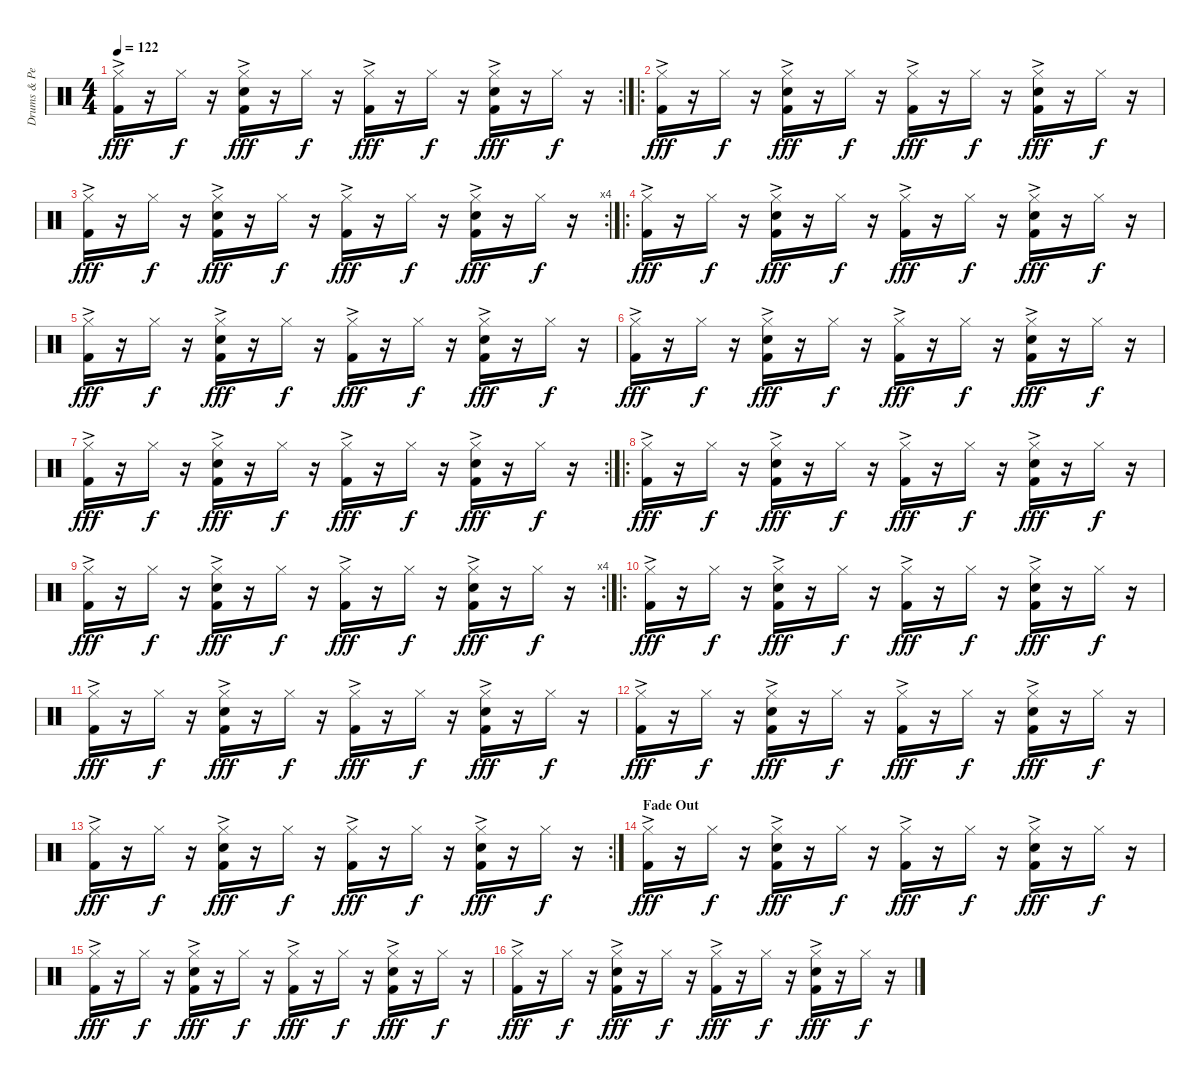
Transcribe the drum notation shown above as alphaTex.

\track ("Drums & Percussion" "Drums & Pe") {instrument percussion}
\staff {score}
\articulation defaults
\rc 2
\ts (4 4)
\tempo 122
\clef neutral
\ks c
("Hi-Hat (closed)"{ac} "Kick (hit) 2").16{dy fff} r.16 "Hi-Hat (closed)".16{dy f} r.16 ("Hi-Hat (closed)"{ac} "Electric Snare (hit)" "Kick (hit) 2").16{dy fff} r.16 "Hi-Hat (closed)".16{dy f} r.16 ("Hi-Hat (closed)"{ac} "Kick (hit) 2").16{dy fff} r.16 "Hi-Hat (closed)".16{dy f} r.16 ("Hi-Hat (closed)"{ac} "Electric Snare (hit)" "Kick (hit) 2").16{dy fff} r.16 "Hi-Hat (closed)".16{dy f} r.16 |
\ro
("Hi-Hat (closed)"{ac} "Kick (hit) 2").16{dy fff} r.16 "Hi-Hat (closed)".16{dy f} r.16 ("Hi-Hat (closed)"{ac} "Electric Snare (hit)" "Kick (hit) 2").16{dy fff} r.16 "Hi-Hat (closed)".16{dy f} r.16 ("Hi-Hat (closed)"{ac} "Kick (hit) 2").16{dy fff} r.16 "Hi-Hat (closed)".16{dy f} r.16 ("Hi-Hat (closed)"{ac} "Electric Snare (hit)" "Kick (hit) 2").16{dy fff} r.16 "Hi-Hat (closed)".16{dy f} r.16 |
\rc 4
("Hi-Hat (closed)"{ac} "Kick (hit) 2").16{dy fff} r.16 "Hi-Hat (closed)".16{dy f} r.16 ("Hi-Hat (closed)"{ac} "Electric Snare (hit)" "Kick (hit) 2").16{dy fff} r.16 "Hi-Hat (closed)".16{dy f} r.16 ("Hi-Hat (closed)"{ac} "Kick (hit) 2").16{dy fff} r.16 "Hi-Hat (closed)".16{dy f} r.16 ("Hi-Hat (closed)"{ac} "Electric Snare (hit)" "Kick (hit) 2").16{dy fff} r.16 "Hi-Hat (closed)".16{dy f} r.16 |
\ro
("Hi-Hat (closed)"{ac} "Kick (hit) 2").16{dy fff} r.16 "Hi-Hat (closed)".16{dy f} r.16 ("Hi-Hat (closed)"{ac} "Electric Snare (hit)" "Kick (hit) 2").16{dy fff} r.16 "Hi-Hat (closed)".16{dy f} r.16 ("Hi-Hat (closed)"{ac} "Kick (hit) 2").16{dy fff} r.16 "Hi-Hat (closed)".16{dy f} r.16 ("Hi-Hat (closed)"{ac} "Electric Snare (hit)" "Kick (hit) 2").16{dy fff} r.16 "Hi-Hat (closed)".16{dy f} r.16 |
("Hi-Hat (closed)"{ac} "Kick (hit) 2").16{dy fff} r.16 "Hi-Hat (closed)".16{dy f} r.16 ("Hi-Hat (closed)"{ac} "Electric Snare (hit)" "Kick (hit) 2").16{dy fff} r.16 "Hi-Hat (closed)".16{dy f} r.16 ("Hi-Hat (closed)"{ac} "Kick (hit) 2").16{dy fff} r.16 "Hi-Hat (closed)".16{dy f} r.16 ("Hi-Hat (closed)"{ac} "Electric Snare (hit)" "Kick (hit) 2").16{dy fff} r.16 "Hi-Hat (closed)".16{dy f} r.16 |
("Hi-Hat (closed)"{ac} "Kick (hit) 2").16{dy fff} r.16 "Hi-Hat (closed)".16{dy f} r.16 ("Hi-Hat (closed)"{ac} "Electric Snare (hit)" "Kick (hit) 2").16{dy fff} r.16 "Hi-Hat (closed)".16{dy f} r.16 ("Hi-Hat (closed)"{ac} "Kick (hit) 2").16{dy fff} r.16 "Hi-Hat (closed)".16{dy f} r.16 ("Hi-Hat (closed)"{ac} "Electric Snare (hit)" "Kick (hit) 2").16{dy fff} r.16 "Hi-Hat (closed)".16{dy f} r.16 |
\rc 2
("Hi-Hat (closed)"{ac} "Kick (hit) 2").16{dy fff} r.16 "Hi-Hat (closed)".16{dy f} r.16 ("Hi-Hat (closed)"{ac} "Electric Snare (hit)" "Kick (hit) 2").16{dy fff} r.16 "Hi-Hat (closed)".16{dy f} r.16 ("Hi-Hat (closed)"{ac} "Kick (hit) 2").16{dy fff} r.16 "Hi-Hat (closed)".16{dy f} r.16 ("Hi-Hat (closed)"{ac} "Electric Snare (hit)" "Kick (hit) 2").16{dy fff} r.16 "Hi-Hat (closed)".16{dy f} r.16 |
\ro
("Hi-Hat (closed)"{ac} "Kick (hit) 2").16{dy fff} r.16 "Hi-Hat (closed)".16{dy f} r.16 ("Hi-Hat (closed)"{ac} "Electric Snare (hit)" "Kick (hit) 2").16{dy fff} r.16 "Hi-Hat (closed)".16{dy f} r.16 ("Hi-Hat (closed)"{ac} "Kick (hit) 2").16{dy fff} r.16 "Hi-Hat (closed)".16{dy f} r.16 ("Hi-Hat (closed)"{ac} "Electric Snare (hit)" "Kick (hit) 2").16{dy fff} r.16 "Hi-Hat (closed)".16{dy f} r.16 |
\rc 4
("Hi-Hat (closed)"{ac} "Kick (hit) 2").16{dy fff} r.16 "Hi-Hat (closed)".16{dy f} r.16 ("Hi-Hat (closed)"{ac} "Electric Snare (hit)" "Kick (hit) 2").16{dy fff} r.16 "Hi-Hat (closed)".16{dy f} r.16 ("Hi-Hat (closed)"{ac} "Kick (hit) 2").16{dy fff} r.16 "Hi-Hat (closed)".16{dy f} r.16 ("Hi-Hat (closed)"{ac} "Electric Snare (hit)" "Kick (hit) 2").16{dy fff} r.16 "Hi-Hat (closed)".16{dy f} r.16 |
\ro
("Hi-Hat (closed)"{ac} "Kick (hit) 2").16{dy fff} r.16 "Hi-Hat (closed)".16{dy f} r.16 ("Hi-Hat (closed)"{ac} "Electric Snare (hit)" "Kick (hit) 2").16{dy fff} r.16 "Hi-Hat (closed)".16{dy f} r.16 ("Hi-Hat (closed)"{ac} "Kick (hit) 2").16{dy fff} r.16 "Hi-Hat (closed)".16{dy f} r.16 ("Hi-Hat (closed)"{ac} "Electric Snare (hit)" "Kick (hit) 2").16{dy fff} r.16 "Hi-Hat (closed)".16{dy f} r.16 |
("Hi-Hat (closed)"{ac} "Kick (hit) 2").16{dy fff} r.16 "Hi-Hat (closed)".16{dy f} r.16 ("Hi-Hat (closed)"{ac} "Electric Snare (hit)" "Kick (hit) 2").16{dy fff} r.16 "Hi-Hat (closed)".16{dy f} r.16 ("Hi-Hat (closed)"{ac} "Kick (hit) 2").16{dy fff} r.16 "Hi-Hat (closed)".16{dy f} r.16 ("Hi-Hat (closed)"{ac} "Electric Snare (hit)" "Kick (hit) 2").16{dy fff} r.16 "Hi-Hat (closed)".16{dy f} r.16 |
("Hi-Hat (closed)"{ac} "Kick (hit) 2").16{dy fff} r.16 "Hi-Hat (closed)".16{dy f} r.16 ("Hi-Hat (closed)"{ac} "Electric Snare (hit)" "Kick (hit) 2").16{dy fff} r.16 "Hi-Hat (closed)".16{dy f} r.16 ("Hi-Hat (closed)"{ac} "Kick (hit) 2").16{dy fff} r.16 "Hi-Hat (closed)".16{dy f} r.16 ("Hi-Hat (closed)"{ac} "Electric Snare (hit)" "Kick (hit) 2").16{dy fff} r.16 "Hi-Hat (closed)".16{dy f} r.16 |
\rc 2
("Hi-Hat (closed)"{ac} "Kick (hit) 2").16{dy fff} r.16 "Hi-Hat (closed)".16{dy f} r.16 ("Hi-Hat (closed)"{ac} "Electric Snare (hit)" "Kick (hit) 2").16{dy fff} r.16 "Hi-Hat (closed)".16{dy f} r.16 ("Hi-Hat (closed)"{ac} "Kick (hit) 2").16{dy fff} r.16 "Hi-Hat (closed)".16{dy f} r.16 ("Hi-Hat (closed)"{ac} "Electric Snare (hit)" "Kick (hit) 2").16{dy fff} r.16 "Hi-Hat (closed)".16{dy f} r.16 |
\section ("" "Fade Out")
("Hi-Hat (closed)"{ac} "Kick (hit) 2").16{dy fff} r.16 "Hi-Hat (closed)".16{dy f} r.16 ("Hi-Hat (closed)"{ac} "Electric Snare (hit)" "Kick (hit) 2").16{dy fff} r.16 "Hi-Hat (closed)".16{dy f} r.16 ("Hi-Hat (closed)"{ac} "Kick (hit) 2").16{dy fff} r.16 "Hi-Hat (closed)".16{dy f} r.16 ("Hi-Hat (closed)"{ac} "Electric Snare (hit)" "Kick (hit) 2").16{dy fff} r.16 "Hi-Hat (closed)".16{dy f} r.16 |
("Hi-Hat (closed)"{ac} "Kick (hit) 2").16{dy fff} r.16 "Hi-Hat (closed)".16{dy f} r.16 ("Hi-Hat (closed)"{ac} "Electric Snare (hit)" "Kick (hit) 2").16{dy fff} r.16 "Hi-Hat (closed)".16{dy f} r.16 ("Hi-Hat (closed)"{ac} "Kick (hit) 2").16{dy fff} r.16 "Hi-Hat (closed)".16{dy f} r.16 ("Hi-Hat (closed)"{ac} "Electric Snare (hit)" "Kick (hit) 2").16{dy fff} r.16 "Hi-Hat (closed)".16{dy f} r.16 |
("Hi-Hat (closed)"{ac} "Kick (hit) 2").16{dy fff} r.16 "Hi-Hat (closed)".16{dy f} r.16 ("Hi-Hat (closed)"{ac} "Electric Snare (hit)" "Kick (hit) 2").16{dy fff} r.16 "Hi-Hat (closed)".16{dy f} r.16 ("Hi-Hat (closed)"{ac} "Kick (hit) 2").16{dy fff} r.16 "Hi-Hat (closed)".16{dy f} r.16 ("Hi-Hat (closed)"{ac} "Electric Snare (hit)" "Kick (hit) 2").16{dy fff} r.16 "Hi-Hat (closed)".16{dy f} r.16
